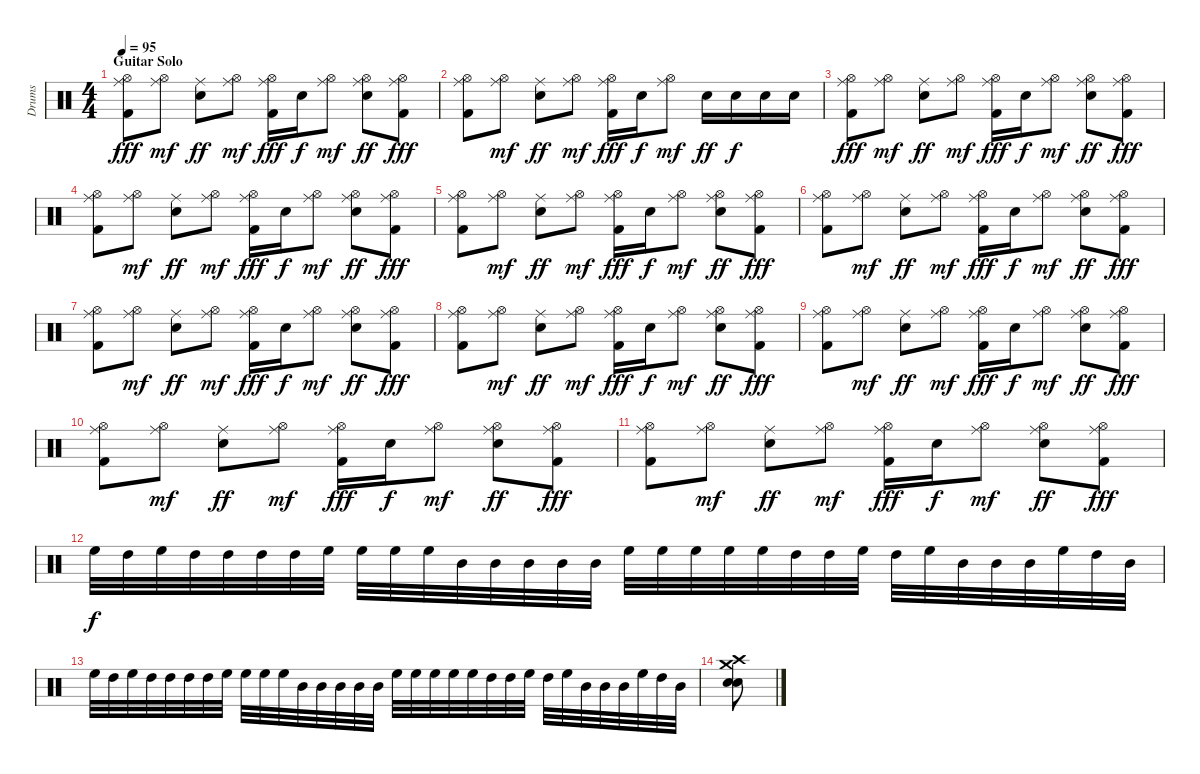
\track ("Drums" "Drums") {instrument percussion}
\staff {score}
\articulation defaults
\ts (4 4)
\section ("" "Guitar Solo")
\tempo 95
\clef neutral
\ks c
("Ride (middle)" "Hi-Hat (open)" "Kick (hit) 2").8{dy fff} ("Ride (middle)" "Hi-Hat (open)").8{dy mf} ("Ride (middle)" "Electric Snare (hit)").8{dy ff} ("Ride (middle)" "Hi-Hat (open)").8{dy mf} ("Ride (middle)" "Hi-Hat (open)" "Kick (hit) 2").16{dy fff} "Electric Snare (hit)".16{dy f} ("Ride (middle)" "Hi-Hat (open)").8{dy mf} ("Ride (middle)" "Hi-Hat (open)" "Electric Snare (hit)").8{dy ff} ("Ride (middle)" "Hi-Hat (open)" "Kick (hit) 2").8{dy fff} |
("Ride (middle)" "Hi-Hat (open)" "Kick (hit) 2").8 ("Ride (middle)" "Hi-Hat (open)").8{dy mf} ("Ride (middle)" "Electric Snare (hit)").8{dy ff} ("Ride (middle)" "Hi-Hat (open)").8{dy mf} ("Ride (middle)" "Hi-Hat (open)" "Kick (hit) 2").16{dy fff} "Electric Snare (hit)".16{dy f} ("Ride (middle)" "Hi-Hat (open)").8{dy mf} "Electric Snare (hit)".16{dy ff} "Electric Snare (hit)".16{dy f} "Electric Snare (hit)".16 "Electric Snare (hit)".16 |
("Ride (middle)" "Hi-Hat (open)" "Kick (hit) 2").8{dy fff} ("Ride (middle)" "Hi-Hat (open)").8{dy mf} ("Ride (middle)" "Electric Snare (hit)").8{dy ff} ("Ride (middle)" "Hi-Hat (open)").8{dy mf} ("Ride (middle)" "Hi-Hat (open)" "Kick (hit) 2").16{dy fff} "Electric Snare (hit)".16{dy f} ("Ride (middle)" "Hi-Hat (open)").8{dy mf} ("Ride (middle)" "Hi-Hat (open)" "Electric Snare (hit)").8{dy ff} ("Ride (middle)" "Hi-Hat (open)" "Kick (hit) 2").8{dy fff} |
("Ride (middle)" "Hi-Hat (open)" "Kick (hit) 2").8 ("Ride (middle)" "Hi-Hat (open)").8{dy mf} ("Ride (middle)" "Electric Snare (hit)").8{dy ff} ("Ride (middle)" "Hi-Hat (open)").8{dy mf} ("Ride (middle)" "Hi-Hat (open)" "Kick (hit) 2").16{dy fff} "Electric Snare (hit)".16{dy f} ("Ride (middle)" "Hi-Hat (open)").8{dy mf} ("Ride (middle)" "Hi-Hat (open)" "Electric Snare (hit)").8{dy ff} ("Ride (middle)" "Hi-Hat (open)" "Kick (hit) 2").8{dy fff} |
("Ride (middle)" "Hi-Hat (open)" "Kick (hit) 2").8 ("Ride (middle)" "Hi-Hat (open)").8{dy mf} ("Ride (middle)" "Electric Snare (hit)").8{dy ff} ("Ride (middle)" "Hi-Hat (open)").8{dy mf} ("Ride (middle)" "Hi-Hat (open)" "Kick (hit) 2").16{dy fff} "Electric Snare (hit)".16{dy f} ("Ride (middle)" "Hi-Hat (open)").8{dy mf} ("Ride (middle)" "Hi-Hat (open)" "Electric Snare (hit)").8{dy ff} ("Ride (middle)" "Hi-Hat (open)" "Kick (hit) 2").8{dy fff} |
("Ride (middle)" "Hi-Hat (open)" "Kick (hit) 2").8 ("Ride (middle)" "Hi-Hat (open)").8{dy mf} ("Ride (middle)" "Electric Snare (hit)").8{dy ff} ("Ride (middle)" "Hi-Hat (open)").8{dy mf} ("Ride (middle)" "Hi-Hat (open)" "Kick (hit) 2").16{dy fff} "Electric Snare (hit)".16{dy f} ("Ride (middle)" "Hi-Hat (open)").8{dy mf} ("Ride (middle)" "Hi-Hat (open)" "Electric Snare (hit)").8{dy ff} ("Ride (middle)" "Hi-Hat (open)" "Kick (hit) 2").8{dy fff} |
("Ride (middle)" "Hi-Hat (open)" "Kick (hit) 2").8 ("Ride (middle)" "Hi-Hat (open)").8{dy mf} ("Ride (middle)" "Electric Snare (hit)").8{dy ff} ("Ride (middle)" "Hi-Hat (open)").8{dy mf} ("Ride (middle)" "Hi-Hat (open)" "Kick (hit) 2").16{dy fff} "Electric Snare (hit)".16{dy f} ("Ride (middle)" "Hi-Hat (open)").8{dy mf} ("Ride (middle)" "Hi-Hat (open)" "Electric Snare (hit)").8{dy ff} ("Ride (middle)" "Hi-Hat (open)" "Kick (hit) 2").8{dy fff} |
("Ride (middle)" "Hi-Hat (open)" "Kick (hit) 2").8 ("Ride (middle)" "Hi-Hat (open)").8{dy mf} ("Ride (middle)" "Electric Snare (hit)").8{dy ff} ("Ride (middle)" "Hi-Hat (open)").8{dy mf} ("Ride (middle)" "Hi-Hat (open)" "Kick (hit) 2").16{dy fff} "Electric Snare (hit)".16{dy f} ("Ride (middle)" "Hi-Hat (open)").8{dy mf} ("Ride (middle)" "Hi-Hat (open)" "Electric Snare (hit)").8{dy ff} ("Ride (middle)" "Hi-Hat (open)" "Kick (hit) 2").8{dy fff} |
("Ride (middle)" "Hi-Hat (open)" "Kick (hit) 2").8 ("Ride (middle)" "Hi-Hat (open)").8{dy mf} ("Ride (middle)" "Electric Snare (hit)").8{dy ff} ("Ride (middle)" "Hi-Hat (open)").8{dy mf} ("Ride (middle)" "Hi-Hat (open)" "Kick (hit) 2").16{dy fff} "Electric Snare (hit)".16{dy f} ("Ride (middle)" "Hi-Hat (open)").8{dy mf} ("Ride (middle)" "Hi-Hat (open)" "Electric Snare (hit)").8{dy ff} ("Ride (middle)" "Hi-Hat (open)" "Kick (hit) 2").8{dy fff} |
("Ride (middle)" "Hi-Hat (open)" "Kick (hit) 2").8 ("Ride (middle)" "Hi-Hat (open)").8{dy mf} ("Ride (middle)" "Electric Snare (hit)").8{dy ff} ("Ride (middle)" "Hi-Hat (open)").8{dy mf} ("Ride (middle)" "Hi-Hat (open)" "Kick (hit) 2").16{dy fff} "Electric Snare (hit)".16{dy f} ("Ride (middle)" "Hi-Hat (open)").8{dy mf} ("Ride (middle)" "Hi-Hat (open)" "Electric Snare (hit)").8{dy ff} ("Ride (middle)" "Hi-Hat (open)" "Kick (hit) 2").8{dy fff} |
("Ride (middle)" "Hi-Hat (open)" "Kick (hit) 2").8 ("Ride (middle)" "Hi-Hat (open)").8{dy mf} ("Ride (middle)" "Electric Snare (hit)").8{dy ff} ("Ride (middle)" "Hi-Hat (open)").8{dy mf} ("Ride (middle)" "Hi-Hat (open)" "Kick (hit) 2").16{dy fff} "Electric Snare (hit)".16{dy f} ("Ride (middle)" "Hi-Hat (open)").8{dy mf} ("Ride (middle)" "Hi-Hat (open)" "Electric Snare (hit)").8{dy ff} ("Ride (middle)" "Hi-Hat (open)" "Kick (hit) 2").8{dy fff} |
"High Floor Tom (hit)".32{dy f} "High Tom (hit)".32 "High Floor Tom (hit)".32 "High Tom (hit)".32 "High Tom (hit)".32 "High Tom (hit)".32 "High Tom (hit)".32 "High Floor Tom (hit)".32 "High Floor Tom (hit)".32 "High Floor Tom (hit)".32 "High Floor Tom (hit)".32 "Mid Tom (hit)".32 "Mid Tom (hit)".32 "Mid Tom (hit)".32 "Mid Tom (hit)".32 "Mid Tom (hit)".32 "High Floor Tom (hit)".32 "High Floor Tom (hit)".32 "High Floor Tom (hit)".32 "High Floor Tom (hit)".32 "High Floor Tom (hit)".32 "High Tom (hit)".32 "High Tom (hit)".32 "High Floor Tom (hit)".32 "High Tom (hit)".32 "High Floor Tom (hit)".32 "Mid Tom (hit)".32 "Mid Tom (hit)".32 "Mid Tom (hit)".32 "High Floor Tom (hit)".32 "High Tom (hit)".32 "Mid Tom (hit)".32 |
"High Floor Tom (hit)".32 "High Tom (hit)".32 "High Floor Tom (hit)".32 "High Tom (hit)".32 "High Tom (hit)".32 "High Tom (hit)".32 "High Tom (hit)".32 "High Floor Tom (hit)".32 "High Floor Tom (hit)".32 "High Floor Tom (hit)".32 "High Floor Tom (hit)".32 "Mid Tom (hit)".32 "Mid Tom (hit)".32 "Mid Tom (hit)".32 "Mid Tom (hit)".32 "Mid Tom (hit)".32 "High Floor Tom (hit)".32 "High Floor Tom (hit)".32 "High Floor Tom (hit)".32 "High Floor Tom (hit)".32 "High Floor Tom (hit)".32 "High Tom (hit)".32 "High Tom (hit)".32 "High Floor Tom (hit)".32 "High Tom (hit)".32 "High Floor Tom (hit)".32 "Mid Tom (hit)".32 "Mid Tom (hit)".32 "Mid Tom (hit)".32 "High Floor Tom (hit)".32 "High Tom (hit)".32 "Mid Tom (hit)".32 |
("Crash high (hit)" "Crash medium (hit)" "Electric Snare (hit)" "Electric Snare (hit)").8
